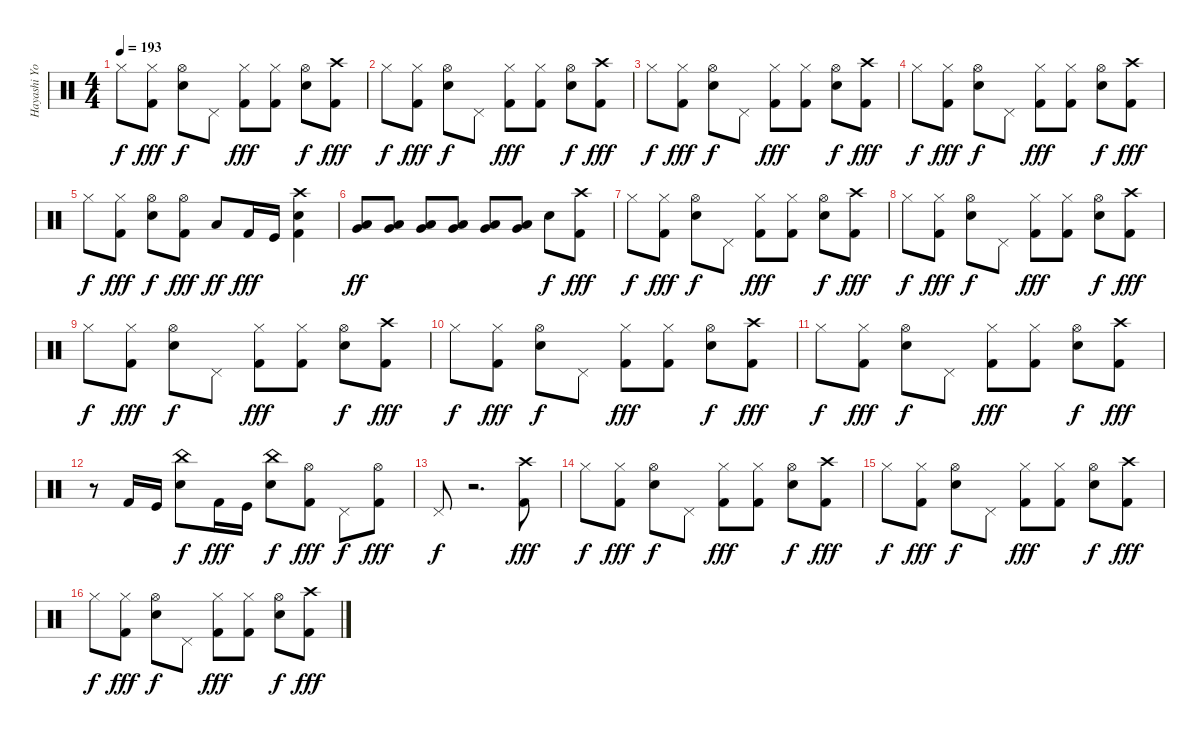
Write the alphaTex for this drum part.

\track ("Hayashi Yoshiki(Yoshiki)" "Hayashi Yo") {instrument percussion}
\staff {score}
\articulation defaults
\ts (4 4)
\tempo 193
\clef neutral
\ks c "Hi-Hat (closed)".8{dy f}
("Hi-Hat (closed)" "Kick (hit) 2").8{dy fff} ("Hi-Hat (open)" "Electric Snare (hit)").8{dy f} "Pedal Hi-Hat (hit)".8 ("Hi-Hat (closed)" "Kick (hit) 2").8{dy fff} ("Hi-Hat (closed)" "Kick (hit) 2").8 ("Hi-Hat (open)" "Electric Snare (hit)").8{dy f} ("Crash high (hit)" "Kick (hit) 2").8{dy fff} |
"Hi-Hat (closed)".8{dy f} ("Hi-Hat (closed)" "Kick (hit) 2").8{dy fff} ("Hi-Hat (open)" "Electric Snare (hit)").8{dy f} "Pedal Hi-Hat (hit)".8 ("Hi-Hat (closed)" "Kick (hit) 2").8{dy fff} ("Hi-Hat (closed)" "Kick (hit) 2").8 ("Hi-Hat (open)" "Electric Snare (hit)").8{dy f} ("Crash high (hit)" "Kick (hit) 2").8{dy fff} |
"Hi-Hat (closed)".8{dy f} ("Hi-Hat (closed)" "Kick (hit) 2").8{dy fff} ("Hi-Hat (open)" "Electric Snare (hit)").8{dy f} "Pedal Hi-Hat (hit)".8 ("Hi-Hat (closed)" "Kick (hit) 2").8{dy fff} ("Hi-Hat (closed)" "Kick (hit) 2").8 ("Hi-Hat (open)" "Electric Snare (hit)").8{dy f} ("Crash high (hit)" "Kick (hit) 2").8{dy fff} |
"Hi-Hat (closed)".8{dy f} ("Hi-Hat (closed)" "Kick (hit) 2").8{dy fff} ("Hi-Hat (open)" "Electric Snare (hit)").8{dy f} "Pedal Hi-Hat (hit)".8 ("Hi-Hat (closed)" "Kick (hit) 2").8{dy fff} ("Hi-Hat (closed)" "Kick (hit) 2").8 ("Hi-Hat (open)" "Electric Snare (hit)").8{dy f} ("Crash high (hit)" "Kick (hit) 2").8{dy fff} |
"Hi-Hat (closed)".8{dy f} ("Hi-Hat (closed)" "Kick (hit) 2").8{dy fff} ("Hi-Hat (open)" "Electric Snare (hit)").8{dy f} ("Hi-Hat (open)" "Kick (hit) 2").8{dy fff} "Low Tom (hit)".8{dy ff} "Kick (hit) 2".16{dy fff} "Kick (hit)".16 ("Crash high (hit)" "Electric Snare (hit)" "Kick (hit) 2").4 |
("Very Low Tom (hit)" "Low Tom (hit)").8{dy ff} ("Very Low Tom (hit)" "Low Tom (hit)").8 ("Very Low Tom (hit)" "Low Tom (hit)").8 ("Very Low Tom (hit)" "Low Tom (hit)").8 ("Very Low Tom (hit)" "Low Tom (hit)").8 ("Very Low Tom (hit)" "Low Tom (hit)").8 "Electric Snare (hit)".8{dy f} ("Crash high (hit)" "Kick (hit) 2").8{dy fff} |
"Hi-Hat (closed)".8{dy f} ("Hi-Hat (closed)" "Kick (hit) 2").8{dy fff} ("Hi-Hat (open)" "Electric Snare (hit)").8{dy f} "Pedal Hi-Hat (hit)".8 ("Hi-Hat (closed)" "Kick (hit) 2").8{dy fff} ("Hi-Hat (closed)" "Kick (hit) 2").8 ("Hi-Hat (open)" "Electric Snare (hit)").8{dy f} ("Crash high (hit)" "Kick (hit) 2").8{dy fff} |
"Hi-Hat (closed)".8{dy f} ("Hi-Hat (closed)" "Kick (hit) 2").8{dy fff} ("Hi-Hat (open)" "Electric Snare (hit)").8{dy f} "Pedal Hi-Hat (hit)".8 ("Hi-Hat (closed)" "Kick (hit) 2").8{dy fff} ("Hi-Hat (closed)" "Kick (hit) 2").8 ("Hi-Hat (open)" "Electric Snare (hit)").8{dy f} ("Crash high (hit)" "Kick (hit) 2").8{dy fff} |
"Hi-Hat (closed)".8{dy f} ("Hi-Hat (closed)" "Kick (hit) 2").8{dy fff} ("Hi-Hat (open)" "Electric Snare (hit)").8{dy f} "Pedal Hi-Hat (hit)".8 ("Hi-Hat (closed)" "Kick (hit) 2").8{dy fff} ("Hi-Hat (closed)" "Kick (hit) 2").8 ("Hi-Hat (open)" "Electric Snare (hit)").8{dy f} ("Crash high (hit)" "Kick (hit) 2").8{dy fff} |
"Hi-Hat (closed)".8{dy f} ("Hi-Hat (closed)" "Kick (hit) 2").8{dy fff} ("Hi-Hat (open)" "Electric Snare (hit)").8{dy f} "Pedal Hi-Hat (hit)".8 ("Hi-Hat (closed)" "Kick (hit) 2").8{dy fff} ("Hi-Hat (closed)" "Kick (hit) 2").8 ("Hi-Hat (open)" "Electric Snare (hit)").8{dy f} ("Crash high (hit)" "Kick (hit) 2").8{dy fff} |
"Hi-Hat (closed)".8{dy f} ("Hi-Hat (closed)" "Kick (hit) 2").8{dy fff} ("Hi-Hat (open)" "Electric Snare (hit)").8{dy f} "Pedal Hi-Hat (hit)".8 ("Hi-Hat (closed)" "Kick (hit) 2").8{dy fff} ("Hi-Hat (closed)" "Kick (hit) 2").8 ("Hi-Hat (open)" "Electric Snare (hit)").8{dy f} ("Crash high (hit)" "Kick (hit) 2").8{dy fff} |
r.8 "Kick (hit) 2".16 "Kick (hit)".16 ("China (hit)" "Electric Snare (hit)").8{dy f} "Kick (hit) 2".16{dy fff} "Kick (hit)".16 ("China (hit)" "Electric Snare (hit)").8{dy f} ("Hi-Hat (open)" "Kick (hit) 2").8{dy fff} "Pedal Hi-Hat (hit)".8{dy f} ("Hi-Hat (open)" "Kick (hit) 2").8{dy fff} |
"Pedal Hi-Hat (hit)".8{dy f} r.2{d} ("Crash high (hit)" "Kick (hit) 2").8{dy fff} |
"Hi-Hat (closed)".8{dy f} ("Hi-Hat (closed)" "Kick (hit) 2").8{dy fff} ("Hi-Hat (open)" "Electric Snare (hit)").8{dy f} "Pedal Hi-Hat (hit)".8 ("Hi-Hat (closed)" "Kick (hit) 2").8{dy fff} ("Hi-Hat (closed)" "Kick (hit) 2").8 ("Hi-Hat (open)" "Electric Snare (hit)").8{dy f} ("Crash high (hit)" "Kick (hit) 2").8{dy fff} |
"Hi-Hat (closed)".8{dy f} ("Hi-Hat (closed)" "Kick (hit) 2").8{dy fff} ("Hi-Hat (open)" "Electric Snare (hit)").8{dy f} "Pedal Hi-Hat (hit)".8 ("Hi-Hat (closed)" "Kick (hit) 2").8{dy fff} ("Hi-Hat (closed)" "Kick (hit) 2").8 ("Hi-Hat (open)" "Electric Snare (hit)").8{dy f} ("Crash high (hit)" "Kick (hit) 2").8{dy fff} |
"Hi-Hat (closed)".8{dy f} ("Hi-Hat (closed)" "Kick (hit) 2").8{dy fff} ("Hi-Hat (open)" "Electric Snare (hit)").8{dy f} "Pedal Hi-Hat (hit)".8 ("Hi-Hat (closed)" "Kick (hit) 2").8{dy fff} ("Hi-Hat (closed)" "Kick (hit) 2").8 ("Hi-Hat (open)" "Electric Snare (hit)").8{dy f} ("Crash high (hit)" "Kick (hit) 2").8{dy fff}
